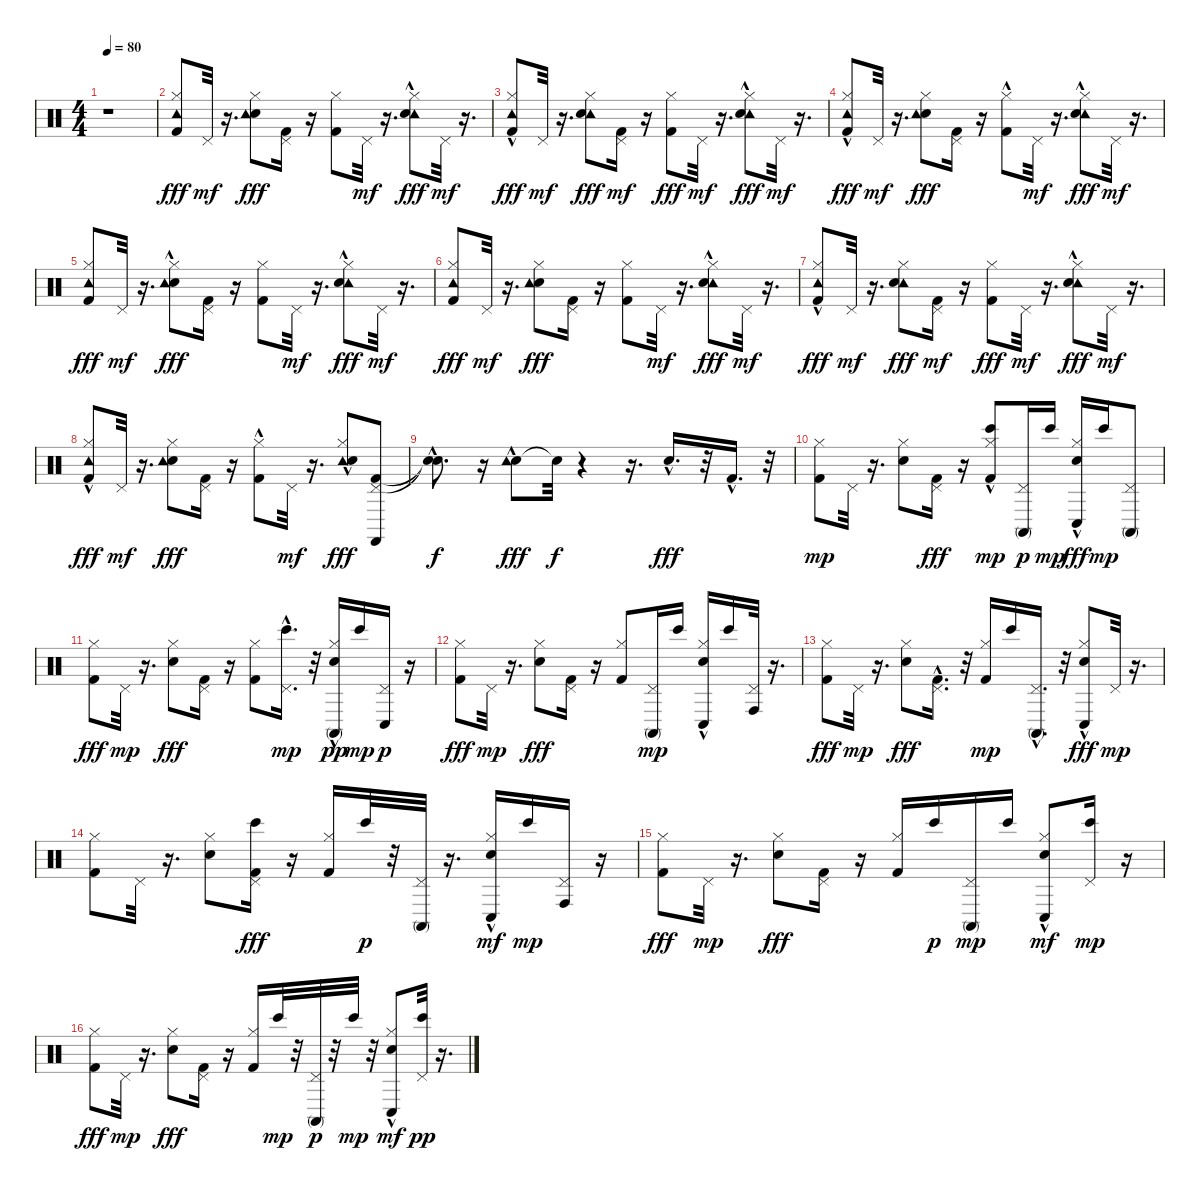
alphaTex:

\track "" {instrument percussion}
\staff {score}
\articulation defaults
\ts (4 4)
\tempo 80
\clef neutral
\ks c
r.1{dy fff} |
("Kick (hit) 2" "Hi-Hat (closed)" "Tambourine (hit)").8 "Pedal Hi-Hat (hit)".32{dy mf} r.16{d} ("Snare (hit) 2" "Hi-Hat (closed)" "Tambourine (hit)").8{dy fff} ("Pedal Hi-Hat (hit)" "Kick (hit) 2").16 r.16 ("Hi-Hat (closed)" "Kick (hit) 2").8 "Pedal Hi-Hat (hit)".32{dy mf} r.16{d} ("Tambourine (hit)"{hac} "Hi-Hat (closed)" "Snare (hit) 2"{hac}).8{dy fff} "Pedal Hi-Hat (hit)".32{dy mf} r.16{d} |
("Hi-Hat (closed)" "Kick (hit) 2" "Tambourine (hit)"{hac}).8{dy fff} "Pedal Hi-Hat (hit)".32{dy mf} r.16{d} ("Tambourine (hit)" "Hi-Hat (closed)" "Snare (hit) 2").8{dy fff} ("Kick (hit) 2" "Pedal Hi-Hat (hit)").16{dy mf} r.16 ("Hi-Hat (closed)" "Kick (hit) 2").8{dy fff} "Pedal Hi-Hat (hit)".32{dy mf} r.16{d} ("Tambourine (hit)"{hac} "Hi-Hat (closed)" "Snare (hit) 2").8{dy fff} "Pedal Hi-Hat (hit)".32{dy mf} r.16{d} |
("Hi-Hat (closed)" "Kick (hit) 2" "Tambourine (hit)"{hac}).8{dy fff} "Pedal Hi-Hat (hit)".32{dy mf} r.16{d} ("Hi-Hat (closed)" "Snare (hit) 2" "Tambourine (hit)").8{dy fff} ("Pedal Hi-Hat (hit)" "Kick (hit) 2").16 r.16 ("Hi-Hat (closed)" "Kick (hit) 2"{hac}).8 "Pedal Hi-Hat (hit)".32{dy mf} r.16{d} ("Tambourine (hit)"{hac} "Hi-Hat (closed)" "Snare (hit) 2"{hac}).8{dy fff} "Pedal Hi-Hat (hit)".32{dy mf} r.16{d} |
("Hi-Hat (closed)" "Kick (hit) 2" "Tambourine (hit)").8{dy fff} "Pedal Hi-Hat (hit)".32{dy mf} r.16{d} ("Hi-Hat (closed)" "Snare (hit) 2" "Tambourine (hit)"{hac}).8{dy fff} ("Pedal Hi-Hat (hit)" "Kick (hit) 2").16 r.16 ("Hi-Hat (closed)" "Kick (hit) 2").8 "Pedal Hi-Hat (hit)".32{dy mf} r.16{d} ("Tambourine (hit)" "Hi-Hat (closed)" "Snare (hit) 2"{hac}).8{dy fff} "Pedal Hi-Hat (hit)".32{dy mf} r.16{d} |
("Kick (hit) 2" "Hi-Hat (closed)" "Tambourine (hit)").8{dy fff} "Pedal Hi-Hat (hit)".32{dy mf} r.16{d} ("Snare (hit) 2" "Hi-Hat (closed)" "Tambourine (hit)").8{dy fff} ("Pedal Hi-Hat (hit)" "Kick (hit) 2").16 r.16 ("Hi-Hat (closed)" "Kick (hit) 2").8 "Pedal Hi-Hat (hit)".32{dy mf} r.16{d} ("Tambourine (hit)"{hac} "Hi-Hat (closed)" "Snare (hit) 2"{hac}).8{dy fff} "Pedal Hi-Hat (hit)".32{dy mf} r.16{d} |
("Hi-Hat (closed)" "Kick (hit) 2" "Tambourine (hit)"{hac}).8{dy fff} "Pedal Hi-Hat (hit)".32{dy mf} r.16{d} ("Tambourine (hit)" "Hi-Hat (closed)" "Snare (hit) 2").8{dy fff} ("Kick (hit) 2" "Pedal Hi-Hat (hit)").16{dy mf} r.16 ("Hi-Hat (closed)" "Kick (hit) 2").8{dy fff} "Pedal Hi-Hat (hit)".32{dy mf} r.16{d} ("Tambourine (hit)"{hac} "Hi-Hat (closed)" "Snare (hit) 2").8{dy fff} "Pedal Hi-Hat (hit)".32{dy mf} r.16{d} |
("Hi-Hat (closed)" "Kick (hit) 2" "Tambourine (hit)"{hac}).8{dy fff} "Pedal Hi-Hat (hit)".32{dy mf} r.16{d} ("Hi-Hat (closed)" "Snare (hit) 2" "Tambourine (hit)").8{dy fff} ("Pedal Hi-Hat (hit)" "Kick (hit) 2").16 r.16 ("Hi-Hat (closed)" "Kick (hit) 2"{hac}).8 "Pedal Hi-Hat (hit)".32{dy mf} r.16{d} ("Tambourine (hit)"{hac} "Hi-Hat (closed)" "Snare (hit) 2"{hac}).8{dy fff} ("Pedal Hi-Hat (hit)" "Kick (hit) 2" "Castanets (hit)").8 |
("Snare (hit)"{hac t} "Snare (hit)"{t}).8{d dy f} r.16 ("Snare (hit) 2" "Tambourine (hit)"{hac}).8{dy fff} "Snare (hit)"{t}.32{dy f} r.4 r.16{d} "Snare (hit) 2"{hac}.16{d dy fff} r.32 "Kick (hit) 2"{hac}.16{d} r.32 |
("Kick (hit) 2" "Hi-Hat (closed)").8{dy mp} "Pedal Hi-Hat (hit)".32 r.16{d} ("Snare (hit) 2" "Hi-Hat (closed)").8 ("Pedal Hi-Hat (hit)" "Kick (hit) 2").16{dy fff} r.16 ("Hi-Hat (closed)" "Kick (hit) 2" "Bongo High (hit)"{hac}).8{dy mp} ("Pedal Hi-Hat (hit)" "Conga high (mute)").16{dy p} "Bongo High (hit)".16{dy mp} ("Conga low (hit)" "Hi-Hat (closed)" "Snare (hit) 2"{hac}).16{dy fff} "Bongo High (hit)".16{dy mp} ("Conga high (mute)" "Pedal Hi-Hat (hit)").8 |
("Hi-Hat (closed)" "Kick (hit) 2").8{dy fff} "Pedal Hi-Hat (hit)".32{dy mp} r.16{d} ("Hi-Hat (closed)" "Snare (hit) 2").8{dy fff} ("Pedal Hi-Hat (hit)" "Kick (hit) 2").16 r.16 ("Hi-Hat (closed)" "Kick (hit) 2").8 ("Bongo High (hit)"{hac} "Pedal Hi-Hat (hit)").16{d dy mp} r.32 ("Hi-Hat (closed)" "Snare (hit) 2"{hac} "Conga high (mute)").16{dy pp} "Bongo High (hit)".16{dy mp} ("Pedal Hi-Hat (hit)" "Conga low (hit)").16{dy p} r.16 |
("Hi-Hat (closed)" "Kick (hit) 2").8{dy fff} "Pedal Hi-Hat (hit)".32{dy mp} r.16{d} ("Hi-Hat (closed)" "Snare (hit) 2").8{dy fff} ("Pedal Hi-Hat (hit)" "Kick (hit) 2").16 r.16 ("Hi-Hat (closed)" "Kick (hit) 2").8 ("Conga high (mute)" "Pedal Hi-Hat (hit)").16{dy mp} "Bongo High (hit)".16 ("Hi-Hat (closed)" "Snare (hit) 2"{hac} "Conga low (hit)").16 "Bongo High (hit)".16 ("Pedal Hi-Hat (hit)" "Conga high (hit)").32 r.16{d} |
("Hi-Hat (closed)" "Kick (hit) 2").8{dy fff} "Pedal Hi-Hat (hit)".32{dy mp} r.16{d} ("Hi-Hat (closed)" "Snare (hit) 2").8{dy fff} ("Pedal Hi-Hat (hit)" "Kick (hit) 2"{hac}).16{d} r.32 ("Kick (hit) 2" "Hi-Hat (closed)").16{dy mp} "Bongo High (hit)".16 ("Pedal Hi-Hat (hit)" "Conga high (mute)"{hac}).16{d} r.32 ("Conga low (hit)"{hac} "Hi-Hat (closed)" "Snare (hit) 2").8{dy fff} "Pedal Hi-Hat (hit)".32{dy mp} r.16{d} |
("Kick (hit) 2" "Hi-Hat (closed)").8 "Pedal Hi-Hat (hit)".32 r.16{d} ("Snare (hit) 2" "Hi-Hat (closed)").8 ("Bongo High (hit)" "Pedal Hi-Hat (hit)" "Kick (hit) 2").16{dy fff} r.16 ("Hi-Hat (closed)" "Kick (hit) 2").16 "Bongo High (hit)".32{dy p} r.32 ("Pedal Hi-Hat (hit)" "Conga high (mute)").32 r.16{d} ("Hi-Hat (closed)" "Snare (hit) 2"{hac} "Conga low (hit)").16{dy mf} "Bongo High (hit)".16{dy mp} ("Pedal Hi-Hat (hit)" "Conga high (hit)").16 r.16 |
("Hi-Hat (closed)" "Kick (hit) 2").8{dy fff} "Pedal Hi-Hat (hit)".32{dy mp} r.16{d} ("Hi-Hat (closed)" "Snare (hit) 2").8{dy fff} ("Pedal Hi-Hat (hit)" "Kick (hit) 2").16 r.16 ("Hi-Hat (closed)" "Kick (hit) 2").16 "Bongo High (hit)".16{dy p} ("Pedal Hi-Hat (hit)" "Conga high (mute)").16{dy mp} "Bongo High (hit)".16 ("Hi-Hat (closed)" "Snare (hit) 2"{hac} "Conga low (hit)").8{dy mf} ("Pedal Hi-Hat (hit)" "Bongo High (hit)").16{dy mp} r.16 |
("Hi-Hat (closed)" "Kick (hit) 2").8{dy fff} "Pedal Hi-Hat (hit)".32{dy mp} r.16{d} ("Hi-Hat (closed)" "Snare (hit) 2").8{dy fff} ("Pedal Hi-Hat (hit)" "Kick (hit) 2").16 r.16 ("Hi-Hat (closed)" "Kick (hit) 2").16 "Bongo High (hit)".32{dy mp} r.32 ("Pedal Hi-Hat (hit)" "Conga high (mute)").32{dy p} r.32 "Bongo High (hit)".32{dy mp} r.32 ("Hi-Hat (closed)" "Snare (hit) 2"{hac} "Conga low (hit)").8{dy mf} ("Pedal Hi-Hat (hit)" "Bongo High (hit)").32{dy pp} r.16{d}
